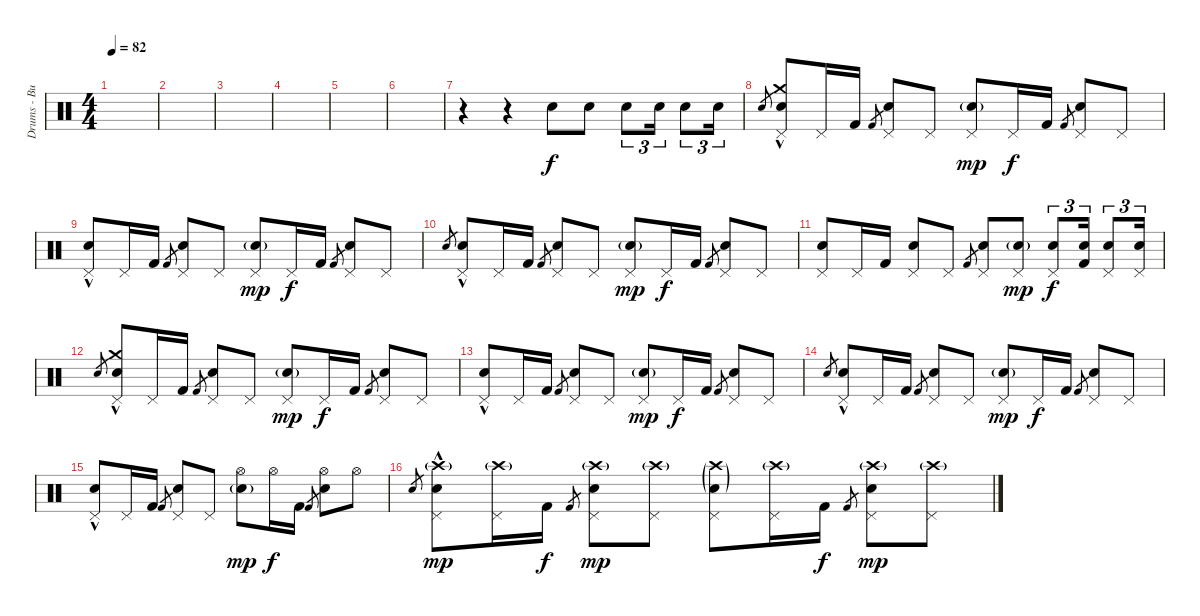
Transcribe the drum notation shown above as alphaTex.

\track ("Drums - Buddy" "Drums - Bu") {instrument percussion}
\staff {score}
\articulation defaults
\ts (4 4)
\tempo 82
\clef neutral
\ks c
|
|
|
|
|
|
r.4 r.4 "Electric Snare (hit)".8 "Electric Snare (hit)".8 "Electric Snare (hit)".8{tu (3 2)} "Electric Snare (hit)".16{tu (3 2)} "Electric Snare (hit)".8{tu (3 2)} "Electric Snare (hit)".16{tu (3 2)} |
"Electric Snare (hit)".8{gr} ("Crash medium (hit)" "Electric Snare (hit)" "Pedal Hi-Hat (hit)"{hac}).8 "Pedal Hi-Hat (hit)".16 "Kick (hit) 2".16 "Kick (hit) 2".8{gr} ("Electric Snare (hit)" "Pedal Hi-Hat (hit)").8 "Pedal Hi-Hat (hit)".8 ("Electric Snare (hit)"{g} "Pedal Hi-Hat (hit)").8{dy mp} "Pedal Hi-Hat (hit)".16{dy f} "Kick (hit) 2".16 "Kick (hit) 2".8{gr} ("Electric Snare (hit)" "Pedal Hi-Hat (hit)").8 "Pedal Hi-Hat (hit)".8 |
("Electric Snare (hit)" "Pedal Hi-Hat (hit)"{hac}).8 "Pedal Hi-Hat (hit)".16 "Kick (hit) 2".16 "Kick (hit) 2".8{gr} ("Electric Snare (hit)" "Pedal Hi-Hat (hit)").8 "Pedal Hi-Hat (hit)".8 ("Electric Snare (hit)"{g} "Pedal Hi-Hat (hit)").8{dy mp} "Pedal Hi-Hat (hit)".16{dy f} "Kick (hit) 2".16 "Kick (hit) 2".8{gr} ("Electric Snare (hit)" "Pedal Hi-Hat (hit)").8 "Pedal Hi-Hat (hit)".8 |
"Electric Snare (hit)".8{gr} ("Electric Snare (hit)" "Pedal Hi-Hat (hit)"{hac}).8 "Pedal Hi-Hat (hit)".16 "Kick (hit) 2".16 "Kick (hit) 2".8{gr} ("Electric Snare (hit)" "Pedal Hi-Hat (hit)").8 "Pedal Hi-Hat (hit)".8 ("Electric Snare (hit)"{g} "Pedal Hi-Hat (hit)").8{dy mp} "Pedal Hi-Hat (hit)".16{dy f} "Kick (hit) 2".16 "Kick (hit) 2".8{gr} ("Electric Snare (hit)" "Pedal Hi-Hat (hit)").8 "Pedal Hi-Hat (hit)".8 |
("Electric Snare (hit)" "Pedal Hi-Hat (hit)").8 "Pedal Hi-Hat (hit)".16 "Kick (hit) 2".16 ("Electric Snare (hit)" "Pedal Hi-Hat (hit)").8 "Pedal Hi-Hat (hit)".8 "Kick (hit) 2".8{gr} ("Electric Snare (hit)" "Pedal Hi-Hat (hit)").8 ("Electric Snare (hit)"{g} "Pedal Hi-Hat (hit)").8{dy mp} ("Electric Snare (hit)" "Pedal Hi-Hat (hit)").8{tu (3 2) dy f} ("Electric Snare (hit)" "Kick (hit) 2").16{tu (3 2)} ("Electric Snare (hit)" "Pedal Hi-Hat (hit)").8{tu (3 2)} ("Electric Snare (hit)" "Pedal Hi-Hat (hit)").16{tu (3 2)} |
"Electric Snare (hit)".8{gr} ("Crash medium (hit)" "Electric Snare (hit)" "Pedal Hi-Hat (hit)"{hac}).8 "Pedal Hi-Hat (hit)".16 "Kick (hit) 2".16 "Kick (hit) 2".8{gr} ("Electric Snare (hit)" "Pedal Hi-Hat (hit)").8 "Pedal Hi-Hat (hit)".8 ("Electric Snare (hit)"{g} "Pedal Hi-Hat (hit)").8{dy mp} "Pedal Hi-Hat (hit)".16{dy f} "Kick (hit) 2".16 "Kick (hit) 2".8{gr} ("Electric Snare (hit)" "Pedal Hi-Hat (hit)").8 "Pedal Hi-Hat (hit)".8 |
("Electric Snare (hit)" "Pedal Hi-Hat (hit)"{hac}).8 "Pedal Hi-Hat (hit)".16 "Kick (hit) 2".16 "Kick (hit) 2".8{gr} ("Electric Snare (hit)" "Pedal Hi-Hat (hit)").8 "Pedal Hi-Hat (hit)".8 ("Electric Snare (hit)"{g} "Pedal Hi-Hat (hit)").8{dy mp} "Pedal Hi-Hat (hit)".16{dy f} "Kick (hit) 2".16 "Kick (hit) 2".8{gr} ("Electric Snare (hit)" "Pedal Hi-Hat (hit)").8 "Pedal Hi-Hat (hit)".8 |
"Electric Snare (hit)".8{gr} ("Electric Snare (hit)" "Pedal Hi-Hat (hit)"{hac}).8 "Pedal Hi-Hat (hit)".16 "Kick (hit) 2".16 "Kick (hit) 2".8{gr} ("Electric Snare (hit)" "Pedal Hi-Hat (hit)").8 "Pedal Hi-Hat (hit)".8 ("Electric Snare (hit)"{g} "Pedal Hi-Hat (hit)").8{dy mp} "Pedal Hi-Hat (hit)".16{dy f} "Kick (hit) 2".16 "Kick (hit) 2".8{gr} ("Electric Snare (hit)" "Pedal Hi-Hat (hit)").8 "Pedal Hi-Hat (hit)".8 |
("Electric Snare (hit)" "Pedal Hi-Hat (hit)"{hac}).8 "Pedal Hi-Hat (hit)".16 "Kick (hit) 2".16 "Kick (hit) 2".8{gr} ("Electric Snare (hit)" "Pedal Hi-Hat (hit)").8 "Pedal Hi-Hat (hit)".8 ("Electric Snare (hit)"{g} "Hi-Hat (open)").8{dy mp} "Hi-Hat (open)".16{dy f} "Kick (hit) 2".16 "Kick (hit) 2".8{gr} ("Electric Snare (hit)" "Hi-Hat (open)").8 "Hi-Hat (open)".8 |
"Electric Snare (hit)".8{gr} ("Crash high (hit)"{g} "Electric Snare (hit)" "Pedal Hi-Hat (hit)"{hac}).8{dy mp} ("Crash high (hit)"{g} "Pedal Hi-Hat (hit)").16 "Kick (hit) 2".16{dy f} "Kick (hit) 2".8{gr} ("Crash high (hit)"{g} "Electric Snare (hit)" "Pedal Hi-Hat (hit)").8{dy mp} ("Crash high (hit)"{g} "Pedal Hi-Hat (hit)").8 ("Crash high (hit)"{g} "Electric Snare (hit)"{g} "Pedal Hi-Hat (hit)").8 ("Crash high (hit)"{g} "Pedal Hi-Hat (hit)").16 "Kick (hit) 2".16{dy f} "Kick (hit) 2".8{gr} ("Crash high (hit)"{g} "Electric Snare (hit)" "Pedal Hi-Hat (hit)").8{dy mp} ("Crash high (hit)"{g} "Pedal Hi-Hat (hit)").8
